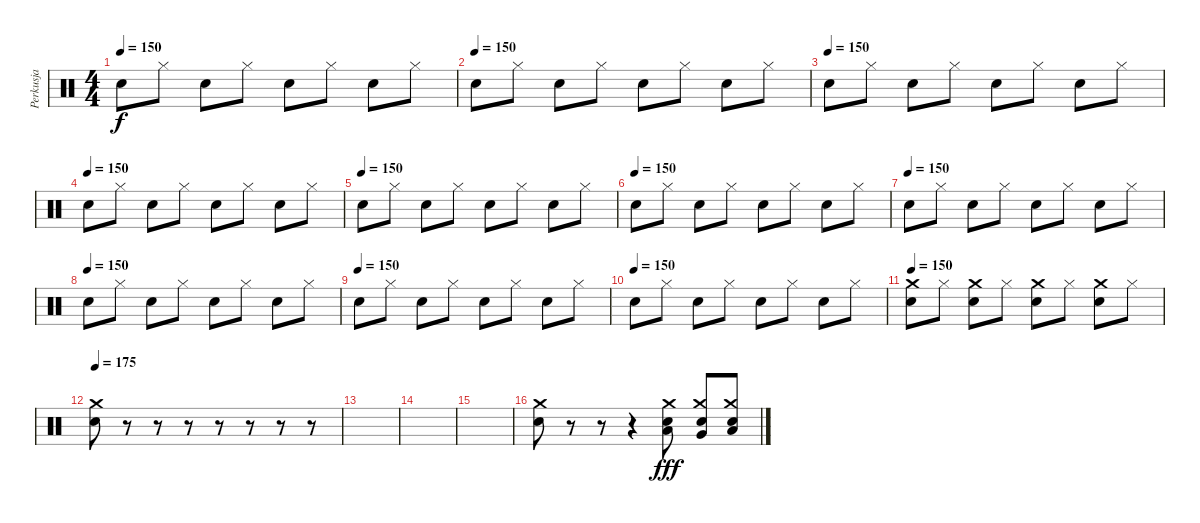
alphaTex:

\track ("Perkusja" "Perkusja") {instrument percussion}
\staff {score}
\articulation defaults
\ts (4 4)
\tempo 150
\clef neutral
\ks c "Snare (hit) 2".8{dy f} "Hi-Hat (closed)".8 "Snare (hit) 2".8 "Hi-Hat (closed)".8 "Snare (hit) 2".8 "Hi-Hat (closed)".8 "Snare (hit) 2".8 "Hi-Hat (closed)".8
|
\tempo (150)
"Snare (hit) 2".8 "Hi-Hat (closed)".8 "Snare (hit) 2".8 "Hi-Hat (closed)".8 "Snare (hit) 2".8 "Hi-Hat (closed)".8 "Snare (hit) 2".8 "Hi-Hat (closed)".8 |
\tempo (150)
"Snare (hit) 2".8 "Hi-Hat (closed)".8 "Snare (hit) 2".8 "Hi-Hat (closed)".8 "Snare (hit) 2".8 "Hi-Hat (closed)".8 "Snare (hit) 2".8 "Hi-Hat (closed)".8 |
\tempo (150)
"Snare (hit) 2".8 "Hi-Hat (closed)".8 "Snare (hit) 2".8 "Hi-Hat (closed)".8 "Snare (hit) 2".8 "Hi-Hat (closed)".8 "Snare (hit) 2".8 "Hi-Hat (closed)".8 |
\tempo (150)
"Snare (hit) 2".8 "Hi-Hat (closed)".8 "Snare (hit) 2".8 "Hi-Hat (closed)".8 "Snare (hit) 2".8 "Hi-Hat (closed)".8 "Snare (hit) 2".8 "Hi-Hat (closed)".8 |
\tempo (150)
"Snare (hit) 2".8 "Hi-Hat (closed)".8 "Snare (hit) 2".8 "Hi-Hat (closed)".8 "Snare (hit) 2".8 "Hi-Hat (closed)".8 "Snare (hit) 2".8 "Hi-Hat (closed)".8 |
\tempo (150)
"Snare (hit) 2".8 "Hi-Hat (closed)".8 "Snare (hit) 2".8 "Hi-Hat (closed)".8 "Snare (hit) 2".8 "Hi-Hat (closed)".8 "Snare (hit) 2".8 "Hi-Hat (closed)".8 |
\tempo (150)
"Snare (hit) 2".8 "Hi-Hat (closed)".8 "Snare (hit) 2".8 "Hi-Hat (closed)".8 "Snare (hit) 2".8 "Hi-Hat (closed)".8 "Snare (hit) 2".8 "Hi-Hat (closed)".8 |
\tempo (150)
"Snare (hit) 2".8 "Hi-Hat (closed)".8 "Snare (hit) 2".8 "Hi-Hat (closed)".8 "Snare (hit) 2".8 "Hi-Hat (closed)".8 "Snare (hit) 2".8 "Hi-Hat (closed)".8 |
\tempo (150)
"Snare (hit) 2".8 "Hi-Hat (closed)".8 "Snare (hit) 2".8 "Hi-Hat (closed)".8 "Snare (hit) 2".8 "Hi-Hat (closed)".8 "Snare (hit) 2".8 "Hi-Hat (closed)".8 |
\tempo 150
("Snare (hit) 2" "Crash medium (hit)").8 "Hi-Hat (closed)".8 ("Snare (hit) 2" "Crash medium (hit)").8 "Hi-Hat (closed)".8 ("Snare (hit) 2" "Crash medium (hit)").8 "Hi-Hat (closed)".8 ("Snare (hit) 2" "Crash medium (hit)").8 "Hi-Hat (closed)".8 |
\tempo 175
("Snare (hit) 2" "Crash medium (hit)").8 r.8 r.8 r.8 r.8 r.8 r.8 r.8 |
|
|
|
("Snare (hit) 2" "Crash medium (hit)").8 r.8 r.8 r.4 ("Low Tom (hit)" "Snare (hit) 2" "Crash medium (hit)").8{dy fff} ("Very Low Tom (hit)" "Snare (hit) 2" "Crash medium (hit)").8 ("Low Floor Tom (hit)" "Snare (hit) 2" "Crash medium (hit)").8
